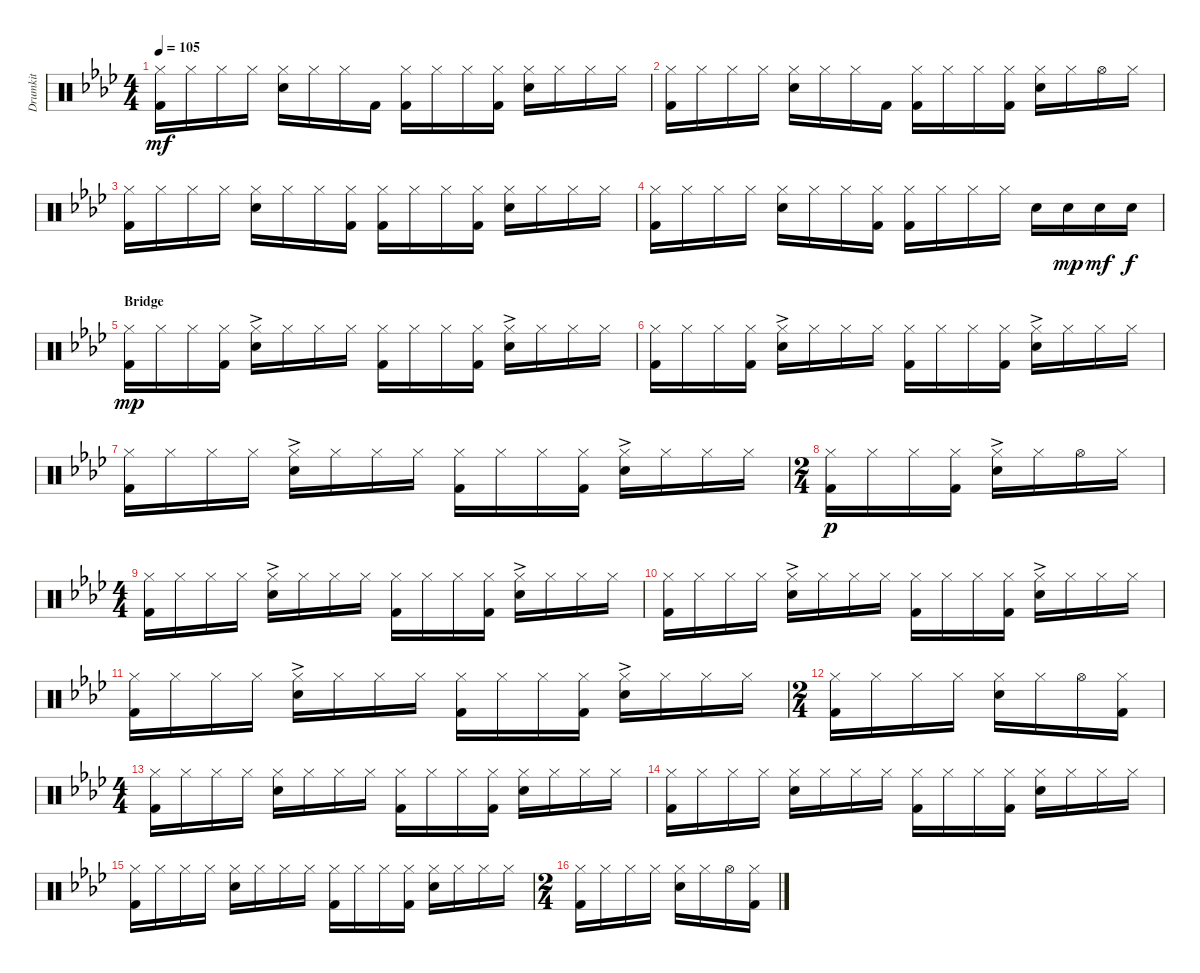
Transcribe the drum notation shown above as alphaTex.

\track ("Drumkit" "Drumkit") {instrument percussion}
\staff {score}
\articulation defaults
\ts (4 4)
\tempo 105
\clef neutral
\ks ab
("Kick (hit) 2" "Hi-Hat (closed)").16{dy mf} "Hi-Hat (closed)".16 "Hi-Hat (closed)".16 "Hi-Hat (closed)".16 ("Snare (hit) 2" "Hi-Hat (closed)").16 "Hi-Hat (closed)".16 "Hi-Hat (closed)".16 "Kick (hit) 2".16 ("Kick (hit) 2" "Hi-Hat (closed)").16 "Hi-Hat (closed)".16 "Hi-Hat (closed)".16 ("Kick (hit) 2" "Hi-Hat (closed)").16 ("Snare (hit) 2" "Hi-Hat (closed)").16 "Hi-Hat (closed)".16 "Hi-Hat (closed)".16 "Hi-Hat (closed)".16 |
("Kick (hit) 2" "Hi-Hat (closed)").16 "Hi-Hat (closed)".16 "Hi-Hat (closed)".16 "Hi-Hat (closed)".16 ("Snare (hit) 2" "Hi-Hat (closed)").16 "Hi-Hat (closed)".16 "Hi-Hat (closed)".16 "Kick (hit) 2".16 ("Kick (hit) 2" "Hi-Hat (closed)").16 "Hi-Hat (closed)".16 "Hi-Hat (closed)".16 ("Kick (hit) 2" "Hi-Hat (closed)").16 ("Snare (hit) 2" "Hi-Hat (closed)").16 "Hi-Hat (closed)".16 "Hi-Hat (open)".16 "Hi-Hat (closed)".16 |
("Kick (hit) 2" "Hi-Hat (closed)").16 "Hi-Hat (closed)".16 "Hi-Hat (closed)".16 "Hi-Hat (closed)".16 ("Snare (hit) 2" "Hi-Hat (closed)").16 "Hi-Hat (closed)".16 "Hi-Hat (closed)".16 ("Kick (hit) 2" "Hi-Hat (closed)").16 ("Kick (hit) 2" "Hi-Hat (closed)").16 "Hi-Hat (closed)".16 "Hi-Hat (closed)".16 ("Kick (hit) 2" "Hi-Hat (closed)").16 ("Snare (hit) 2" "Hi-Hat (closed)").16 "Hi-Hat (closed)".16 "Hi-Hat (closed)".16 "Hi-Hat (closed)".16 |
("Kick (hit) 2" "Hi-Hat (closed)").16 "Hi-Hat (closed)".16 "Hi-Hat (closed)".16 "Hi-Hat (closed)".16 ("Snare (hit) 2" "Hi-Hat (closed)").16 "Hi-Hat (closed)".16 "Hi-Hat (closed)".16 ("Kick (hit) 2" "Hi-Hat (closed)").16 ("Kick (hit) 2" "Hi-Hat (closed)").16 "Hi-Hat (closed)".16 "Hi-Hat (closed)".16 "Hi-Hat (closed)".16 "Snare (hit) 2".16 "Snare (hit) 2".16{dy mp} "Snare (hit) 2".16{dy mf} "Snare (hit) 2".16{dy f} |
\section ("" "Bridge")
("Hi-Hat (closed)" "Kick (hit) 2").16{dy mp} "Hi-Hat (closed)".16 "Hi-Hat (closed)".16 ("Hi-Hat (closed)" "Kick (hit) 2").16 ("Hi-Hat (closed)" "Snare (hit) 2"{ac}).16 "Hi-Hat (closed)".16 "Hi-Hat (closed)".16 "Hi-Hat (closed)".16 ("Hi-Hat (closed)" "Kick (hit) 2").16 "Hi-Hat (closed)".16 "Hi-Hat (closed)".16 ("Hi-Hat (closed)" "Kick (hit) 2").16 ("Hi-Hat (closed)" "Snare (hit) 2"{ac}).16 "Hi-Hat (closed)".16 "Hi-Hat (closed)".16 "Hi-Hat (closed)".16 |
("Hi-Hat (closed)" "Kick (hit) 2").16 "Hi-Hat (closed)".16 "Hi-Hat (closed)".16 ("Hi-Hat (closed)" "Kick (hit) 2").16 ("Hi-Hat (closed)" "Snare (hit) 2"{ac}).16 "Hi-Hat (closed)".16 "Hi-Hat (closed)".16 "Hi-Hat (closed)".16 ("Hi-Hat (closed)" "Kick (hit) 2").16 "Hi-Hat (closed)".16 "Hi-Hat (closed)".16 ("Hi-Hat (closed)" "Kick (hit) 2").16 ("Hi-Hat (closed)" "Snare (hit) 2"{ac}).16 "Hi-Hat (closed)".16 "Hi-Hat (closed)".16 "Hi-Hat (closed)".16 |
("Hi-Hat (closed)" "Kick (hit) 2").16 "Hi-Hat (closed)".16 "Hi-Hat (closed)".16 "Hi-Hat (closed)".16 ("Hi-Hat (closed)" "Snare (hit) 2"{ac}).16 "Hi-Hat (closed)".16 "Hi-Hat (closed)".16 "Hi-Hat (closed)".16 ("Hi-Hat (closed)" "Kick (hit) 2").16 "Hi-Hat (closed)".16 "Hi-Hat (closed)".16 ("Hi-Hat (closed)" "Kick (hit) 2").16 ("Hi-Hat (closed)" "Snare (hit) 2"{ac}).16 "Hi-Hat (closed)".16 "Hi-Hat (closed)".16 "Hi-Hat (closed)".16 |
\ts (2 4)
("Hi-Hat (closed)" "Kick (hit) 2").16{dy p} "Hi-Hat (closed)".16 "Hi-Hat (closed)".16 ("Hi-Hat (closed)" "Kick (hit) 2").16 ("Hi-Hat (closed)" "Snare (hit) 2"{ac}).16 "Hi-Hat (closed)".16 "Hi-Hat (open)".16 "Hi-Hat (closed)".16 |
\ts (4 4)
("Hi-Hat (closed)" "Kick (hit) 2").16 "Hi-Hat (closed)".16 "Hi-Hat (closed)".16 "Hi-Hat (closed)".16 ("Hi-Hat (closed)" "Snare (hit) 2"{ac}).16 "Hi-Hat (closed)".16 "Hi-Hat (closed)".16 "Hi-Hat (closed)".16 ("Hi-Hat (closed)" "Kick (hit) 2").16 "Hi-Hat (closed)".16 "Hi-Hat (closed)".16 ("Hi-Hat (closed)" "Kick (hit) 2").16 ("Hi-Hat (closed)" "Snare (hit) 2"{ac}).16 "Hi-Hat (closed)".16 "Hi-Hat (closed)".16 "Hi-Hat (closed)".16 |
("Hi-Hat (closed)" "Kick (hit) 2").16 "Hi-Hat (closed)".16 "Hi-Hat (closed)".16 "Hi-Hat (closed)".16 ("Hi-Hat (closed)" "Snare (hit) 2"{ac}).16 "Hi-Hat (closed)".16 "Hi-Hat (closed)".16 "Hi-Hat (closed)".16 ("Hi-Hat (closed)" "Kick (hit) 2").16 "Hi-Hat (closed)".16 "Hi-Hat (closed)".16 ("Hi-Hat (closed)" "Kick (hit) 2").16 ("Hi-Hat (closed)" "Snare (hit) 2"{ac}).16 "Hi-Hat (closed)".16 "Hi-Hat (closed)".16 "Hi-Hat (closed)".16 |
("Hi-Hat (closed)" "Kick (hit) 2").16 "Hi-Hat (closed)".16 "Hi-Hat (closed)".16 "Hi-Hat (closed)".16 ("Hi-Hat (closed)" "Snare (hit) 2"{ac}).16 "Hi-Hat (closed)".16 "Hi-Hat (closed)".16 "Hi-Hat (closed)".16 ("Hi-Hat (closed)" "Kick (hit) 2").16 "Hi-Hat (closed)".16 "Hi-Hat (closed)".16 ("Hi-Hat (closed)" "Kick (hit) 2").16 ("Hi-Hat (closed)" "Snare (hit) 2"{ac}).16 "Hi-Hat (closed)".16 "Hi-Hat (closed)".16 "Hi-Hat (closed)".16 |
\ts (2 4)
("Hi-Hat (closed)" "Kick (hit) 2").16 "Hi-Hat (closed)".16 "Hi-Hat (closed)".16 "Hi-Hat (closed)".16 ("Hi-Hat (closed)" "Snare (hit) 2").16 "Hi-Hat (closed)".16 "Hi-Hat (open)".16 ("Hi-Hat (closed)" "Kick (hit) 2").16 |
\ts (4 4)
("Hi-Hat (closed)" "Kick (hit) 2").16 "Hi-Hat (closed)".16 "Hi-Hat (closed)".16 "Hi-Hat (closed)".16 ("Hi-Hat (closed)" "Snare (hit) 2").16 "Hi-Hat (closed)".16 "Hi-Hat (closed)".16 "Hi-Hat (closed)".16 ("Hi-Hat (closed)" "Kick (hit) 2").16 "Hi-Hat (closed)".16 "Hi-Hat (closed)".16 ("Hi-Hat (closed)" "Kick (hit) 2").16 ("Hi-Hat (closed)" "Snare (hit) 2").16 "Hi-Hat (closed)".16 "Hi-Hat (closed)".16 "Hi-Hat (closed)".16 |
("Hi-Hat (closed)" "Kick (hit) 2").16 "Hi-Hat (closed)".16 "Hi-Hat (closed)".16 "Hi-Hat (closed)".16 ("Hi-Hat (closed)" "Snare (hit) 2").16 "Hi-Hat (closed)".16 "Hi-Hat (closed)".16 "Hi-Hat (closed)".16 ("Hi-Hat (closed)" "Kick (hit) 2").16 "Hi-Hat (closed)".16 "Hi-Hat (closed)".16 ("Hi-Hat (closed)" "Kick (hit) 2").16 ("Hi-Hat (closed)" "Snare (hit) 2").16 "Hi-Hat (closed)".16 "Hi-Hat (closed)".16 "Hi-Hat (closed)".16 |
("Hi-Hat (closed)" "Kick (hit) 2").16 "Hi-Hat (closed)".16 "Hi-Hat (closed)".16 "Hi-Hat (closed)".16 ("Hi-Hat (closed)" "Snare (hit) 2").16 "Hi-Hat (closed)".16 "Hi-Hat (closed)".16 "Hi-Hat (closed)".16 ("Hi-Hat (closed)" "Kick (hit) 2").16 "Hi-Hat (closed)".16 "Hi-Hat (closed)".16 ("Hi-Hat (closed)" "Kick (hit) 2").16 ("Hi-Hat (closed)" "Snare (hit) 2").16 "Hi-Hat (closed)".16 "Hi-Hat (closed)".16 "Hi-Hat (closed)".16 |
\ts (2 4)
("Hi-Hat (closed)" "Kick (hit) 2").16 "Hi-Hat (closed)".16 "Hi-Hat (closed)".16 "Hi-Hat (closed)".16 ("Hi-Hat (closed)" "Snare (hit) 2").16 "Hi-Hat (closed)".16 "Hi-Hat (open)".16 ("Hi-Hat (closed)" "Kick (hit) 2").16
